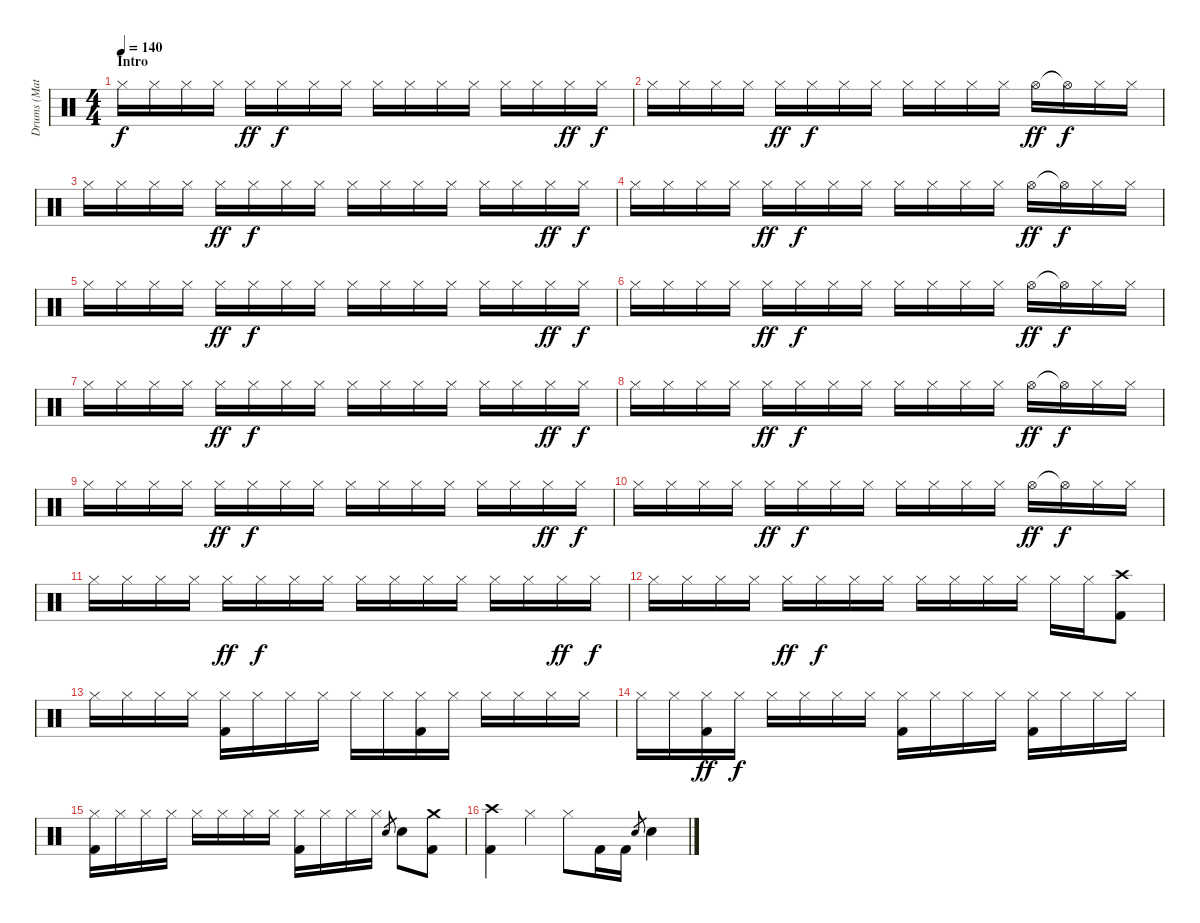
\track ("Drums (Matt)" "Drums (Mat") {instrument percussion}
\staff {score}
\articulation defaults
\ts (4 4)
\section ("" "Intro")
\tempo 140
\clef neutral
\ks c "Hi-Hat (closed)".16{dy f} "Hi-Hat (closed)".16 "Hi-Hat (closed)".16 "Hi-Hat (closed)".16 "Hi-Hat (closed)".16{dy ff} "Hi-Hat (closed)".16{dy f} "Hi-Hat (closed)".16 "Hi-Hat (closed)".16 "Hi-Hat (closed)".16 "Hi-Hat (closed)".16 "Hi-Hat (closed)".16 "Hi-Hat (closed)".16 "Hi-Hat (closed)".16 "Hi-Hat (closed)".16 "Hi-Hat (closed)".16{dy ff} "Hi-Hat (closed)".16{dy f}
|
"Hi-Hat (closed)".16 "Hi-Hat (closed)".16 "Hi-Hat (closed)".16 "Hi-Hat (closed)".16 "Hi-Hat (closed)".16{dy ff} "Hi-Hat (closed)".16{dy f} "Hi-Hat (closed)".16 "Hi-Hat (closed)".16 "Hi-Hat (closed)".16 "Hi-Hat (closed)".16 "Hi-Hat (closed)".16 "Hi-Hat (closed)".16 "Hi-Hat (open)".16{dy ff} "Hi-Hat (open)"{t}.16{dy f} "Hi-Hat (closed)".16 "Hi-Hat (closed)".16 |
"Hi-Hat (closed)".16 "Hi-Hat (closed)".16 "Hi-Hat (closed)".16 "Hi-Hat (closed)".16 "Hi-Hat (closed)".16{dy ff} "Hi-Hat (closed)".16{dy f} "Hi-Hat (closed)".16 "Hi-Hat (closed)".16 "Hi-Hat (closed)".16 "Hi-Hat (closed)".16 "Hi-Hat (closed)".16 "Hi-Hat (closed)".16 "Hi-Hat (closed)".16 "Hi-Hat (closed)".16 "Hi-Hat (closed)".16{dy ff} "Hi-Hat (closed)".16{dy f} |
"Hi-Hat (closed)".16 "Hi-Hat (closed)".16 "Hi-Hat (closed)".16 "Hi-Hat (closed)".16 "Hi-Hat (closed)".16{dy ff} "Hi-Hat (closed)".16{dy f} "Hi-Hat (closed)".16 "Hi-Hat (closed)".16 "Hi-Hat (closed)".16 "Hi-Hat (closed)".16 "Hi-Hat (closed)".16 "Hi-Hat (closed)".16 "Hi-Hat (open)".16{dy ff} "Hi-Hat (open)"{t}.16{dy f} "Hi-Hat (closed)".16 "Hi-Hat (closed)".16 |
"Hi-Hat (closed)".16 "Hi-Hat (closed)".16 "Hi-Hat (closed)".16 "Hi-Hat (closed)".16 "Hi-Hat (closed)".16{dy ff} "Hi-Hat (closed)".16{dy f} "Hi-Hat (closed)".16 "Hi-Hat (closed)".16 "Hi-Hat (closed)".16 "Hi-Hat (closed)".16 "Hi-Hat (closed)".16 "Hi-Hat (closed)".16 "Hi-Hat (closed)".16 "Hi-Hat (closed)".16 "Hi-Hat (closed)".16{dy ff} "Hi-Hat (closed)".16{dy f} |
"Hi-Hat (closed)".16 "Hi-Hat (closed)".16 "Hi-Hat (closed)".16 "Hi-Hat (closed)".16 "Hi-Hat (closed)".16{dy ff} "Hi-Hat (closed)".16{dy f} "Hi-Hat (closed)".16 "Hi-Hat (closed)".16 "Hi-Hat (closed)".16 "Hi-Hat (closed)".16 "Hi-Hat (closed)".16 "Hi-Hat (closed)".16 "Hi-Hat (open)".16{dy ff} "Hi-Hat (open)"{t}.16{dy f} "Hi-Hat (closed)".16 "Hi-Hat (closed)".16 |
"Hi-Hat (closed)".16 "Hi-Hat (closed)".16 "Hi-Hat (closed)".16 "Hi-Hat (closed)".16 "Hi-Hat (closed)".16{dy ff} "Hi-Hat (closed)".16{dy f} "Hi-Hat (closed)".16 "Hi-Hat (closed)".16 "Hi-Hat (closed)".16 "Hi-Hat (closed)".16 "Hi-Hat (closed)".16 "Hi-Hat (closed)".16 "Hi-Hat (closed)".16 "Hi-Hat (closed)".16 "Hi-Hat (closed)".16{dy ff} "Hi-Hat (closed)".16{dy f} |
"Hi-Hat (closed)".16 "Hi-Hat (closed)".16 "Hi-Hat (closed)".16 "Hi-Hat (closed)".16 "Hi-Hat (closed)".16{dy ff} "Hi-Hat (closed)".16{dy f} "Hi-Hat (closed)".16 "Hi-Hat (closed)".16 "Hi-Hat (closed)".16 "Hi-Hat (closed)".16 "Hi-Hat (closed)".16 "Hi-Hat (closed)".16 "Hi-Hat (open)".16{dy ff} "Hi-Hat (open)"{t}.16{dy f} "Hi-Hat (closed)".16 "Hi-Hat (closed)".16 |
"Hi-Hat (closed)".16 "Hi-Hat (closed)".16 "Hi-Hat (closed)".16 "Hi-Hat (closed)".16 "Hi-Hat (closed)".16{dy ff} "Hi-Hat (closed)".16{dy f} "Hi-Hat (closed)".16 "Hi-Hat (closed)".16 "Hi-Hat (closed)".16 "Hi-Hat (closed)".16 "Hi-Hat (closed)".16 "Hi-Hat (closed)".16 "Hi-Hat (closed)".16 "Hi-Hat (closed)".16 "Hi-Hat (closed)".16{dy ff} "Hi-Hat (closed)".16{dy f} |
"Hi-Hat (closed)".16 "Hi-Hat (closed)".16 "Hi-Hat (closed)".16 "Hi-Hat (closed)".16 "Hi-Hat (closed)".16{dy ff} "Hi-Hat (closed)".16{dy f} "Hi-Hat (closed)".16 "Hi-Hat (closed)".16 "Hi-Hat (closed)".16 "Hi-Hat (closed)".16 "Hi-Hat (closed)".16 "Hi-Hat (closed)".16 "Hi-Hat (open)".16{dy ff} "Hi-Hat (open)"{t}.16{dy f} "Hi-Hat (closed)".16 "Hi-Hat (closed)".16 |
"Hi-Hat (closed)".16 "Hi-Hat (closed)".16 "Hi-Hat (closed)".16 "Hi-Hat (closed)".16 "Hi-Hat (closed)".16{dy ff} "Hi-Hat (closed)".16{dy f} "Hi-Hat (closed)".16 "Hi-Hat (closed)".16 "Hi-Hat (closed)".16 "Hi-Hat (closed)".16 "Hi-Hat (closed)".16 "Hi-Hat (closed)".16 "Hi-Hat (closed)".16 "Hi-Hat (closed)".16 "Hi-Hat (closed)".16{dy ff} "Hi-Hat (closed)".16{dy f} |
"Hi-Hat (closed)".16 "Hi-Hat (closed)".16 "Hi-Hat (closed)".16 "Hi-Hat (closed)".16 "Hi-Hat (closed)".16{dy ff} "Hi-Hat (closed)".16{dy f} "Hi-Hat (closed)".16 "Hi-Hat (closed)".16 "Hi-Hat (closed)".16 "Hi-Hat (closed)".16 "Hi-Hat (closed)".16 "Hi-Hat (closed)".16 "Hi-Hat (closed)".16 "Hi-Hat (closed)".16 ("Crash high (hit)" "Kick (hit) 2").8 |
"Hi-Hat (closed)".16 "Hi-Hat (closed)".16 "Hi-Hat (closed)".16 "Hi-Hat (closed)".16 ("Hi-Hat (closed)" "Kick (hit) 2").16 "Hi-Hat (closed)".16 "Hi-Hat (closed)".16 "Hi-Hat (closed)".16 "Hi-Hat (closed)".16 "Hi-Hat (closed)".16 ("Hi-Hat (closed)" "Kick (hit) 2").16 "Hi-Hat (closed)".16 "Hi-Hat (closed)".16 "Hi-Hat (closed)".16 "Hi-Hat (closed)".16 "Hi-Hat (closed)".16 |
"Hi-Hat (closed)".16 "Hi-Hat (closed)".16 ("Hi-Hat (closed)" "Kick (hit) 2").16{dy ff} "Hi-Hat (closed)".16{dy f} "Hi-Hat (closed)".16 "Hi-Hat (closed)".16 "Hi-Hat (closed)".16 "Hi-Hat (closed)".16 ("Hi-Hat (closed)" "Kick (hit) 2").16 "Hi-Hat (closed)".16 "Hi-Hat (closed)".16 "Hi-Hat (closed)".16 ("Hi-Hat (closed)" "Kick (hit) 2").16 "Hi-Hat (closed)".16 "Hi-Hat (closed)".16 "Hi-Hat (closed)".16 |
("Hi-Hat (closed)" "Kick (hit) 2").16 "Hi-Hat (closed)".16 "Hi-Hat (closed)".16 "Hi-Hat (closed)".16 "Hi-Hat (closed)".16 "Hi-Hat (closed)".16 "Hi-Hat (closed)".16 "Hi-Hat (closed)".16 ("Hi-Hat (closed)" "Kick (hit) 2").16 "Hi-Hat (closed)".16 "Hi-Hat (closed)".16 "Hi-Hat (closed)".16 "Snare (hit) 2".8{gr} "Snare (hit) 2".8 ("Crash medium (hit)" "Kick (hit) 2").8 |
("Crash high (hit)" "Kick (hit) 2").4 "Hi-Hat (closed)".4 "Hi-Hat (closed)".8 "Kick (hit) 2".16 "Kick (hit) 2".16 "Snare (hit) 2".8{gr} "Snare (hit) 2".4
